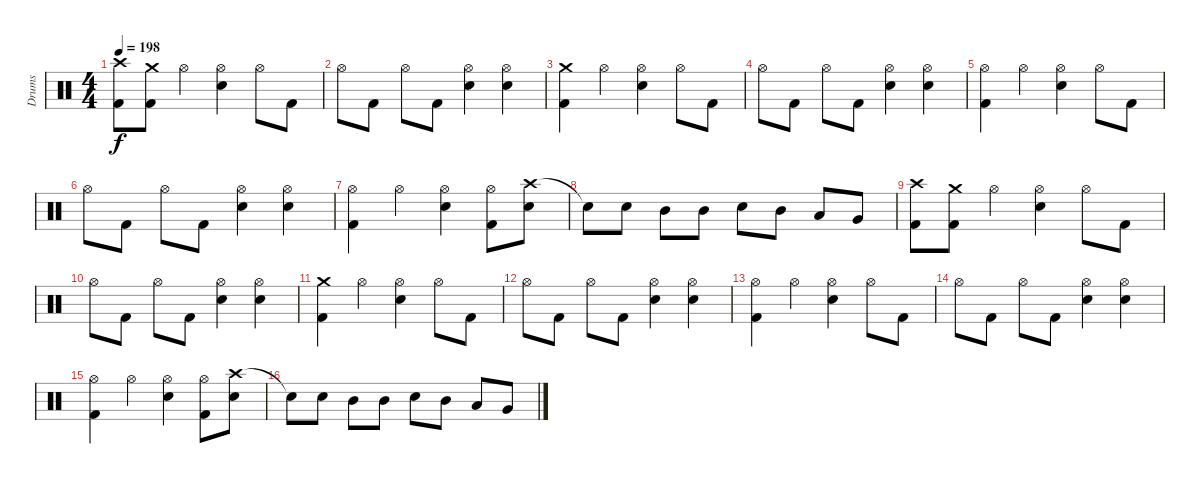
\track ("Drums" "Drums") {instrument percussion}
\staff {score}
\articulation defaults
\ts (4 4)
\tempo 198
\clef neutral
\ks c
("Crash high (hit)" "Kick (hit) 2").8{dy f} ("Crash medium (hit)" "Kick (hit) 2").8 "Hi-Hat (open)".4 ("Hi-Hat (open)" "Snare (hit) 2").4 "Hi-Hat (open)".8 "Kick (hit) 2".8 |
"Hi-Hat (open)".8 "Kick (hit) 2".8 "Hi-Hat (open)".8 "Kick (hit) 2".8 ("Hi-Hat (open)" "Snare (hit) 2").4 ("Hi-Hat (open)" "Snare (hit) 2").4 |
("Crash medium (hit)" "Kick (hit) 2").4 "Hi-Hat (open)".4 ("Hi-Hat (open)" "Snare (hit) 2").4 "Hi-Hat (open)".8 "Kick (hit) 2".8 |
"Hi-Hat (open)".8 "Kick (hit) 2".8 "Hi-Hat (open)".8 "Kick (hit) 2".8 ("Hi-Hat (open)" "Snare (hit) 2").4 ("Hi-Hat (open)" "Snare (hit) 2").4 |
("Hi-Hat (open)" "Kick (hit) 2").4 "Hi-Hat (open)".4 ("Hi-Hat (open)" "Snare (hit) 2").4 "Hi-Hat (open)".8 "Kick (hit) 2".8 |
"Hi-Hat (open)".8 "Kick (hit) 2".8 "Hi-Hat (open)".8 "Kick (hit) 2".8 ("Hi-Hat (open)" "Snare (hit) 2").4 ("Hi-Hat (open)" "Snare (hit) 2").4 |
("Hi-Hat (open)" "Kick (hit) 2").4 "Hi-Hat (open)".4 ("Hi-Hat (open)" "Snare (hit) 2").4 ("Hi-Hat (open)" "Kick (hit) 2").8 ("Crash high (hit)" "Snare (hit) 2").8 |
"Snare (hit)"{t}.8 "Snare (hit) 2".8 "Mid Tom (hit)".8 "Mid Tom (hit)".8 "Snare (hit) 2".8 "Mid Tom (hit)".8 "Low Tom (hit)".8 "Very Low Tom (hit)".8 |
("Crash high (hit)" "Kick (hit) 2").8 ("Crash medium (hit)" "Kick (hit) 2").8 "Hi-Hat (open)".4 ("Hi-Hat (open)" "Snare (hit) 2").4 "Hi-Hat (open)".8 "Kick (hit) 2".8 |
"Hi-Hat (open)".8 "Kick (hit) 2".8 "Hi-Hat (open)".8 "Kick (hit) 2".8 ("Hi-Hat (open)" "Snare (hit) 2").4 ("Hi-Hat (open)" "Snare (hit) 2").4 |
("Crash medium (hit)" "Kick (hit) 2").4 "Hi-Hat (open)".4 ("Hi-Hat (open)" "Snare (hit) 2").4 "Hi-Hat (open)".8 "Kick (hit) 2".8 |
"Hi-Hat (open)".8 "Kick (hit) 2".8 "Hi-Hat (open)".8 "Kick (hit) 2".8 ("Hi-Hat (open)" "Snare (hit) 2").4 ("Hi-Hat (open)" "Snare (hit) 2").4 |
("Hi-Hat (open)" "Kick (hit) 2").4 "Hi-Hat (open)".4 ("Hi-Hat (open)" "Snare (hit) 2").4 "Hi-Hat (open)".8 "Kick (hit) 2".8 |
"Hi-Hat (open)".8 "Kick (hit) 2".8 "Hi-Hat (open)".8 "Kick (hit) 2".8 ("Hi-Hat (open)" "Snare (hit) 2").4 ("Hi-Hat (open)" "Snare (hit) 2").4 |
("Hi-Hat (open)" "Kick (hit) 2").4 "Hi-Hat (open)".4 ("Hi-Hat (open)" "Snare (hit) 2").4 ("Hi-Hat (open)" "Kick (hit) 2").8 ("Crash high (hit)" "Snare (hit) 2").8 |
"Snare (hit)"{t}.8 "Snare (hit) 2".8 "Mid Tom (hit)".8 "Mid Tom (hit)".8 "Snare (hit) 2".8 "Mid Tom (hit)".8 "Low Tom (hit)".8 "Very Low Tom (hit)".8
